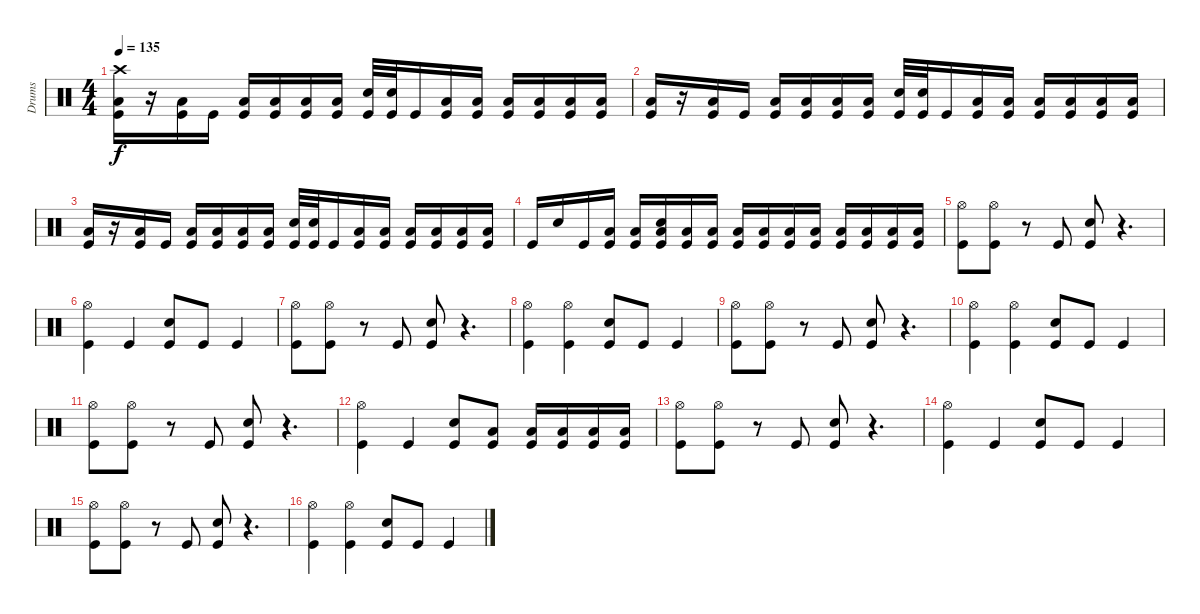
\track ("Drums" "Drums") {instrument percussion}
\staff {score}
\articulation defaults
\ts (4 4)
\tempo 135
\clef neutral
\ks c
("Crash high (hit)" "Low Tom (hit)" "Kick (hit)").16{dy f} r.16 ("Low Tom (hit)" "Kick (hit)").16 "Kick (hit)".16 ("Low Tom (hit)" "Kick (hit)").16 ("Low Tom (hit)" "Kick (hit)").16 ("Low Tom (hit)" "Kick (hit)").16 ("Low Tom (hit)" "Kick (hit)").16 ("Electric Snare (hit)" "Kick (hit)").32 ("Electric Snare (hit)" "Kick (hit)").32 "Kick (hit)".16 ("Low Tom (hit)" "Kick (hit)").16 ("Low Tom (hit)" "Kick (hit)").16 ("Low Tom (hit)" "Kick (hit)").16 ("Low Tom (hit)" "Kick (hit)").16 ("Low Tom (hit)" "Kick (hit)").16 ("Low Tom (hit)" "Kick (hit)").16 |
("Low Tom (hit)" "Kick (hit)").16 r.16 ("Low Tom (hit)" "Kick (hit)").16 "Kick (hit)".16 ("Low Tom (hit)" "Kick (hit)").16 ("Low Tom (hit)" "Kick (hit)").16 ("Low Tom (hit)" "Kick (hit)").16 ("Low Tom (hit)" "Kick (hit)").16 ("Electric Snare (hit)" "Kick (hit)").32 ("Electric Snare (hit)" "Kick (hit)").32 "Kick (hit)".16 ("Low Tom (hit)" "Kick (hit)").16 ("Low Tom (hit)" "Kick (hit)").16 ("Low Tom (hit)" "Kick (hit)").16 ("Low Tom (hit)" "Kick (hit)").16 ("Low Tom (hit)" "Kick (hit)").16 ("Low Tom (hit)" "Kick (hit)").16 |
("Low Tom (hit)" "Kick (hit)").16 r.16 ("Low Tom (hit)" "Kick (hit)").16 "Kick (hit)".16 ("Low Tom (hit)" "Kick (hit)").16 ("Low Tom (hit)" "Kick (hit)").16 ("Low Tom (hit)" "Kick (hit)").16 ("Low Tom (hit)" "Kick (hit)").16 ("Electric Snare (hit)" "Kick (hit)").32 ("Electric Snare (hit)" "Kick (hit)").32 "Kick (hit)".16 ("Low Tom (hit)" "Kick (hit)").16 ("Low Tom (hit)" "Kick (hit)").16 ("Low Tom (hit)" "Kick (hit)").16 ("Low Tom (hit)" "Kick (hit)").16 ("Low Tom (hit)" "Kick (hit)").16 ("Low Tom (hit)" "Kick (hit)").16 |
"Kick (hit)".16 "Electric Snare (hit)".16 "Kick (hit)".16 ("Low Tom (hit)" "Kick (hit)").16 ("Low Tom (hit)" "Kick (hit)").16 ("Low Tom (hit)" "Electric Snare (hit)" "Kick (hit)").16 ("Low Tom (hit)" "Kick (hit)").16 ("Low Tom (hit)" "Kick (hit)").16 ("Low Tom (hit)" "Kick (hit)").16 ("Low Tom (hit)" "Kick (hit)").16 ("Low Tom (hit)" "Kick (hit)").16 ("Low Tom (hit)" "Kick (hit)").16 ("Low Tom (hit)" "Kick (hit)").16 ("Low Tom (hit)" "Kick (hit)").16 ("Low Tom (hit)" "Kick (hit)").16 ("Low Tom (hit)" "Kick (hit)").16 |
("Hi-Hat (open)" "Kick (hit)").8 ("Hi-Hat (open)" "Kick (hit)").8 r.8 "Kick (hit)".8 ("Electric Snare (hit)" "Kick (hit)").8 r.4{d} |
("Hi-Hat (open)" "Kick (hit)").4 "Kick (hit)".4 ("Electric Snare (hit)" "Kick (hit)").8 "Kick (hit)".8 "Kick (hit)".4 |
("Hi-Hat (open)" "Kick (hit)").8 ("Hi-Hat (open)" "Kick (hit)").8 r.8 "Kick (hit)".8 ("Electric Snare (hit)" "Kick (hit)").8 r.4{d} |
("Hi-Hat (open)" "Kick (hit)").4 ("Hi-Hat (open)" "Kick (hit)").4 ("Electric Snare (hit)" "Kick (hit)").8 "Kick (hit)".8 "Kick (hit)".4 |
("Hi-Hat (open)" "Kick (hit)").8 ("Hi-Hat (open)" "Kick (hit)").8 r.8 "Kick (hit)".8 ("Electric Snare (hit)" "Kick (hit)").8 r.4{d} |
("Hi-Hat (open)" "Kick (hit)").4 ("Hi-Hat (open)" "Kick (hit)").4 ("Electric Snare (hit)" "Kick (hit)").8 "Kick (hit)".8 "Kick (hit)".4 |
("Hi-Hat (open)" "Kick (hit)").8 ("Hi-Hat (open)" "Kick (hit)").8 r.8 "Kick (hit)".8 ("Electric Snare (hit)" "Kick (hit)").8 r.4{d} |
("Hi-Hat (open)" "Kick (hit)").4 "Kick (hit)".4 ("Electric Snare (hit)" "Kick (hit)").8 ("Low Tom (hit)" "Kick (hit)").8 ("Low Tom (hit)" "Kick (hit)").16 ("Low Tom (hit)" "Kick (hit)").16 ("Low Tom (hit)" "Kick (hit)").16 ("Low Tom (hit)" "Kick (hit)").16 |
("Hi-Hat (open)" "Kick (hit)").8 ("Hi-Hat (open)" "Kick (hit)").8 r.8 "Kick (hit)".8 ("Electric Snare (hit)" "Kick (hit)").8 r.4{d} |
("Hi-Hat (open)" "Kick (hit)").4 "Kick (hit)".4 ("Electric Snare (hit)" "Kick (hit)").8 "Kick (hit)".8 "Kick (hit)".4 |
("Hi-Hat (open)" "Kick (hit)").8 ("Hi-Hat (open)" "Kick (hit)").8 r.8 "Kick (hit)".8 ("Electric Snare (hit)" "Kick (hit)").8 r.4{d} |
("Hi-Hat (open)" "Kick (hit)").4 ("Hi-Hat (open)" "Kick (hit)").4 ("Electric Snare (hit)" "Kick (hit)").8 "Kick (hit)".8 "Kick (hit)".4
